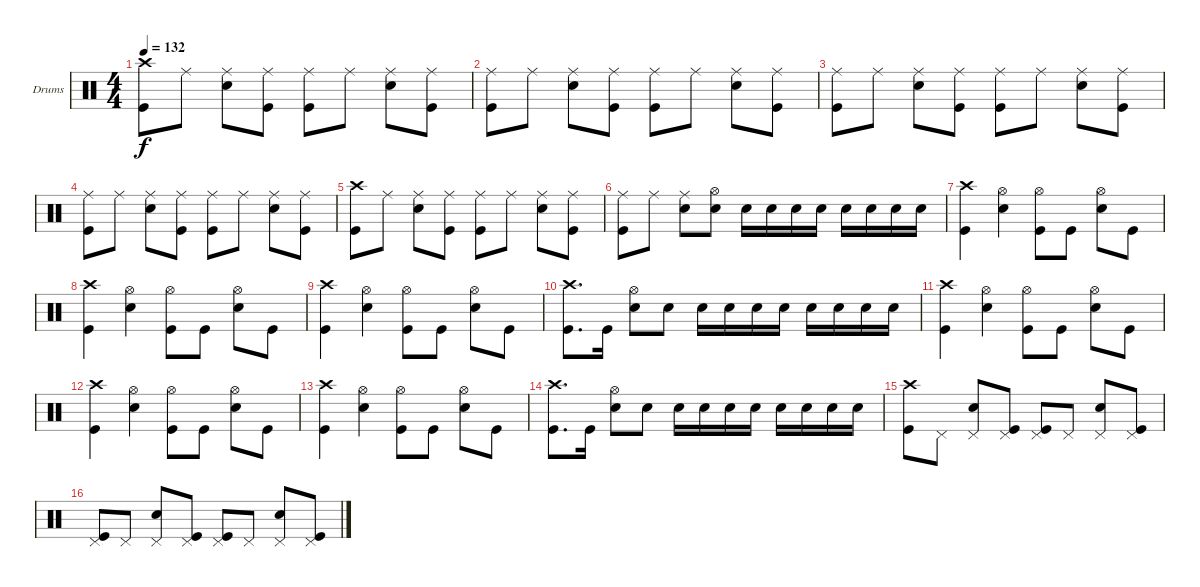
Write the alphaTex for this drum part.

\defaultSystemsLayout 4
\bracketExtendMode groupsimilarinstruments
\firstSystemTrackNameOrientation horizontal
\otherSystemsTrackNameOrientation horizontal
\track ("Drumkit" "Drums") {instrument percussion}
\staff {score}
\articulation defaults
\ts (4 4)
\tempo 132
\clef neutral
\ks c
("Crash high (hit)" "Kick (hit)").8{dy f} "Ride (middle)".8 ("Ride (middle)" "Snare (hit) 2").8 ("Ride (middle)" "Kick (hit)").8 ("Ride (middle)" "Kick (hit)").8 "Ride (middle)".8 ("Ride (middle)" "Snare (hit) 2").8 ("Ride (middle)" "Kick (hit)").8 |
("Ride (middle)" "Kick (hit)").8 "Ride (middle)".8 ("Ride (middle)" "Snare (hit) 2").8 ("Ride (middle)" "Kick (hit)").8 ("Ride (middle)" "Kick (hit)").8 "Ride (middle)".8 ("Ride (middle)" "Snare (hit) 2").8 ("Ride (middle)" "Kick (hit)").8 |
("Ride (middle)" "Kick (hit)").8 "Ride (middle)".8 ("Ride (middle)" "Snare (hit) 2").8 ("Ride (middle)" "Kick (hit)").8 ("Ride (middle)" "Kick (hit)").8 "Ride (middle)".8 ("Ride (middle)" "Snare (hit) 2").8 ("Ride (middle)" "Kick (hit)").8 |
("Ride (middle)" "Kick (hit)").8 "Ride (middle)".8 ("Ride (middle)" "Snare (hit) 2").8 ("Ride (middle)" "Kick (hit)").8 ("Ride (middle)" "Kick (hit)").8 "Ride (middle)".8 ("Ride (middle)" "Snare (hit) 2").8 ("Ride (middle)" "Kick (hit)").8 |
("Crash high (hit)" "Kick (hit)").8 "Ride (middle)".8 ("Ride (middle)" "Snare (hit) 2").8 ("Ride (middle)" "Kick (hit)").8 ("Ride (middle)" "Kick (hit)").8 "Ride (middle)".8 ("Ride (middle)" "Snare (hit) 2").8 ("Ride (middle)" "Kick (hit)").8 |
("Ride (middle)" "Kick (hit)").8 "Ride (middle)".8 ("Ride (middle)" "Snare (hit) 2").8 ("Hi-Hat (open)" "Snare (hit) 2").8 "Snare (hit) 2".16 "Snare (hit) 2".16 "Snare (hit) 2".16 "Snare (hit) 2".16 "Snare (hit) 2".16 "Snare (hit) 2".16 "Snare (hit) 2".16 "Snare (hit) 2".16 |
("Crash high (hit)" "Kick (hit)").4 ("Hi-Hat (open)" "Snare (hit) 2").4 ("Hi-Hat (open)" "Kick (hit)").8 "Kick (hit)".8 ("Hi-Hat (open)" "Snare (hit) 2").8 "Kick (hit)".8 |
("Crash high (hit)" "Kick (hit)").4 ("Hi-Hat (open)" "Snare (hit) 2").4 ("Hi-Hat (open)" "Kick (hit)").8 "Kick (hit)".8 ("Hi-Hat (open)" "Snare (hit) 2").8 "Kick (hit)".8 |
("Crash high (hit)" "Kick (hit)").4 ("Hi-Hat (open)" "Snare (hit) 2").4 ("Hi-Hat (open)" "Kick (hit)").8 "Kick (hit)".8 ("Hi-Hat (open)" "Snare (hit) 2").8 "Kick (hit)".8 |
("Crash high (hit)" "Kick (hit)").8{d} "Kick (hit)".16 ("Hi-Hat (open)" "Snare (hit) 2").8 "Snare (hit) 2".8 "Snare (hit) 2".16 "Snare (hit) 2".16 "Snare (hit) 2".16 "Snare (hit) 2".16 "Snare (hit) 2".16 "Snare (hit) 2".16 "Snare (hit) 2".16 "Snare (hit) 2".16 |
("Crash high (hit)" "Kick (hit)").4 ("Hi-Hat (open)" "Snare (hit) 2").4 ("Hi-Hat (open)" "Kick (hit)").8 "Kick (hit)".8 ("Hi-Hat (open)" "Snare (hit) 2").8 "Kick (hit)".8 |
("Crash high (hit)" "Kick (hit)").4 ("Hi-Hat (open)" "Snare (hit) 2").4 ("Hi-Hat (open)" "Kick (hit)").8 "Kick (hit)".8 ("Hi-Hat (open)" "Snare (hit) 2").8 "Kick (hit)".8 |
("Crash high (hit)" "Kick (hit)").4 ("Hi-Hat (open)" "Snare (hit) 2").4 ("Hi-Hat (open)" "Kick (hit)").8 "Kick (hit)".8 ("Hi-Hat (open)" "Snare (hit) 2").8 "Kick (hit)".8 |
("Crash high (hit)" "Kick (hit)").8{d} "Kick (hit)".16 ("Hi-Hat (open)" "Snare (hit) 2").8 "Snare (hit) 2".8 "Snare (hit) 2".16 "Snare (hit) 2".16 "Snare (hit) 2".16 "Snare (hit) 2".16 "Snare (hit) 2".16 "Snare (hit) 2".16 "Snare (hit) 2".16 "Snare (hit) 2".16 |
("Crash high (hit)" "Kick (hit)").8 "Pedal Hi-Hat (hit)".8 ("Pedal Hi-Hat (hit)" "Snare (hit) 2").8 ("Pedal Hi-Hat (hit)" "Kick (hit)").8 ("Pedal Hi-Hat (hit)" "Kick (hit)").8 "Pedal Hi-Hat (hit)".8 ("Pedal Hi-Hat (hit)" "Snare (hit) 2").8 ("Pedal Hi-Hat (hit)" "Kick (hit)").8 |
("Pedal Hi-Hat (hit)" "Kick (hit)").8 "Pedal Hi-Hat (hit)".8 ("Pedal Hi-Hat (hit)" "Snare (hit) 2").8 ("Pedal Hi-Hat (hit)" "Kick (hit)").8 ("Pedal Hi-Hat (hit)" "Kick (hit)").8 "Pedal Hi-Hat (hit)".8 ("Pedal Hi-Hat (hit)" "Snare (hit) 2").8 ("Pedal Hi-Hat (hit)" "Kick (hit)").8
